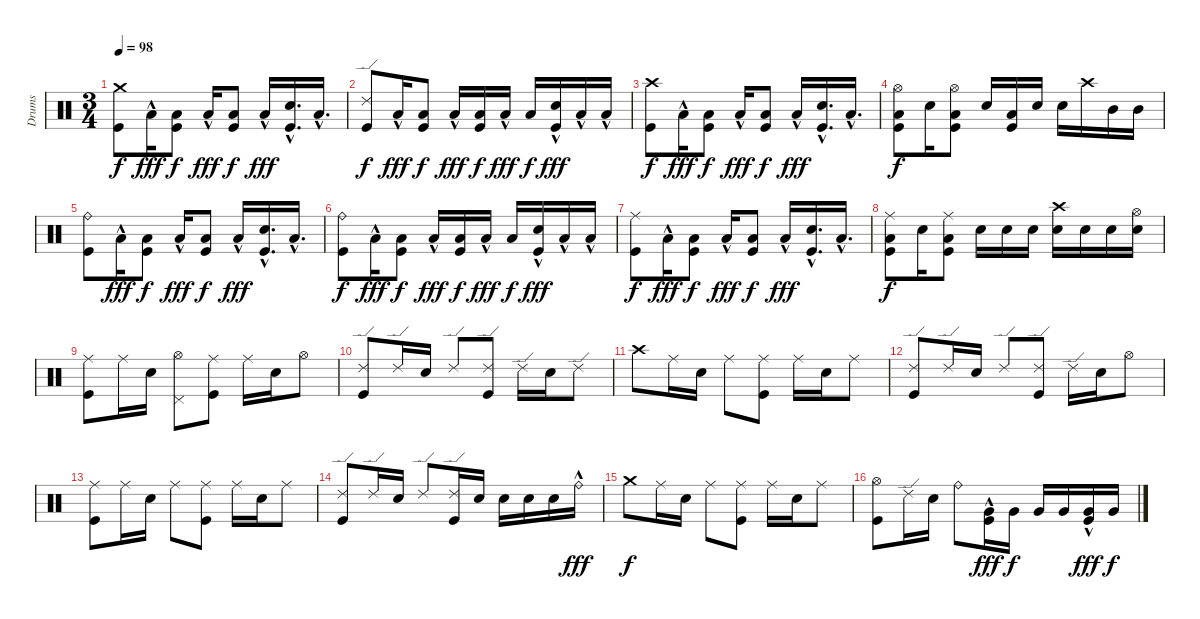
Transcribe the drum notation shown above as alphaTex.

\track ("Drums" "Drums") {instrument percussion}
\staff {score}
\articulation defaults
\ts (3 4)
\tempo 98
\clef neutral
\ks c
("Crash medium (hit)" "Kick (hit)").8{dy f} "Low Floor Tom (hit)"{hac}.16{dy fff} ("Low Floor Tom (hit)" "Kick (hit)").8{dy f} "Low Floor Tom (hit)"{hac}.16{dy fff} ("Low Floor Tom (hit)" "Kick (hit)").8{dy f} "Low Floor Tom (hit)"{hac}.16{dy fff} ("Snare (hit) 2"{hac} "Kick (hit)").16{d} "Low Floor Tom (hit)"{hac}.16{d} |
("Ride (edge) 2" "Kick (hit)").8{dy f} "Low Floor Tom (hit)"{hac}.16{dy fff} ("Low Floor Tom (hit)" "Kick (hit)").8{dy f} "Low Floor Tom (hit)"{hac}.16{dy fff} ("Low Floor Tom (hit)" "Kick (hit)").16{dy f} "Low Floor Tom (hit)"{hac}.16{dy fff} "Low Floor Tom (hit)".16{dy f} ("Snare (hit) 2"{hac} "Kick (hit)").16{dy fff} "Low Floor Tom (hit)"{hac}.16 "Low Floor Tom (hit)"{hac}.16 |
("Crash high (hit)" "Kick (hit)").8{dy f} "Low Floor Tom (hit)"{hac}.16{dy fff} ("Low Floor Tom (hit)" "Kick (hit)").8{dy f} "Low Floor Tom (hit)"{hac}.16{dy fff} ("Low Floor Tom (hit)" "Kick (hit)").8{dy f} "Low Floor Tom (hit)"{hac}.16{dy fff} ("Snare (hit) 2"{hac} "Kick (hit)").16{d} "Low Floor Tom (hit)"{hac}.16{d} |
("Low Floor Tom (hit)" "Kick (hit)" "Hi-Hat (open)").8{dy f} "Snare (hit) 2".16 ("Kick (hit)" "Low Floor Tom (hit)" "Hi-Hat (open)").8 "Snare (hit) 2".16 ("Low Floor Tom (hit)" "Kick (hit)").16 "Snare (hit) 2".16 "Snare (hit) 2".16 "Crash high (hit)".16 "Mid Tom (hit)".16 "Mid Tom (hit)".16 |
("Ride (bell)" "Kick (hit)").8 "Low Floor Tom (hit)"{hac}.16{dy fff} ("Low Floor Tom (hit)" "Kick (hit)").8{dy f} "Low Floor Tom (hit)"{hac}.16{dy fff} ("Low Floor Tom (hit)" "Kick (hit)").8{dy f} "Low Floor Tom (hit)"{hac}.16{dy fff} ("Snare (hit) 2"{hac} "Kick (hit)").16{d} "Low Floor Tom (hit)"{hac}.16{d} |
("Ride (bell)" "Kick (hit)").8{dy f} "Low Floor Tom (hit)"{hac}.16{dy fff} ("Low Floor Tom (hit)" "Kick (hit)").8{dy f} "Low Floor Tom (hit)"{hac}.16{dy fff} ("Low Floor Tom (hit)" "Kick (hit)").16{dy f} "Low Floor Tom (hit)"{hac}.16{dy fff} "Low Floor Tom (hit)".16{dy f} ("Snare (hit) 2"{hac} "Kick (hit)").16{dy fff} "Low Floor Tom (hit)"{hac}.16 "Low Floor Tom (hit)"{hac}.16 |
("Ride (middle)" "Kick (hit)").8{dy f} "Low Floor Tom (hit)"{hac}.16{dy fff} ("Low Floor Tom (hit)" "Kick (hit)").8{dy f} "Low Floor Tom (hit)"{hac}.16{dy fff} ("Low Floor Tom (hit)" "Kick (hit)").8{dy f} "Low Floor Tom (hit)"{hac}.16{dy fff} ("Snare (hit) 2"{hac} "Kick (hit)").16{d} "Low Floor Tom (hit)"{hac}.16{d} |
("Low Floor Tom (hit)" "Kick (hit)" "Ride (middle)").8{dy f} "Snare (hit) 2".16 ("Kick (hit)" "Low Floor Tom (hit)" "Ride (middle)").8 "Snare (hit) 2".16 "Snare (hit) 2".16 "Snare (hit) 2".16 ("Snare (hit) 2" "Crash high (hit)").16 "Snare (hit) 2".16 "Snare (hit) 2".16 ("Snare (hit) 2" "Hi-Hat (open)").16 |
("Ride (middle)" "Kick (hit)").8 "Ride (middle)".16 "Snare (hit) 2".16 ("Hi-Hat (open)" "Pedal Hi-Hat (hit)").8 ("Ride (middle)" "Kick (hit)").8 "Ride (middle)".16 "Snare (hit) 2".16 "Hi-Hat (open)".8 |
("Ride (edge) 2" "Kick (hit)").8 "Ride (edge) 2".16 "Snare (hit) 2".16 "Ride (edge) 2".8 ("Ride (edge) 2" "Kick (hit)").8 "Ride (edge) 2".16 "Snare (hit) 2".16 "Ride (edge) 2".8 |
"Crash high (hit)".8 "Ride (middle)".16 "Snare (hit) 2".16 "Ride (middle)".8 ("Ride (middle)" "Kick (hit)").8 "Ride (middle)".16 "Snare (hit) 2".16 "Ride (middle)".8 |
("Ride (edge) 2" "Kick (hit)").8 "Ride (edge) 2".16 "Snare (hit) 2".16 "Ride (edge) 2".8 ("Ride (edge) 2" "Kick (hit)").8 "Ride (edge) 2".16 "Snare (hit) 2".16 "Hi-Hat (open)".8 |
("Ride (middle)" "Kick (hit)").8 "Ride (middle)".16 "Snare (hit) 2".16 "Ride (middle)".8 ("Ride (middle)" "Kick (hit)").8 "Ride (middle)".16 "Snare (hit) 2".16 "Ride (middle)".8 |
("Ride (edge) 2" "Kick (hit)").8 "Ride (edge) 2".16 "Snare (hit) 2".16 "Ride (edge) 2".8 ("Ride (edge) 2" "Kick (hit)").16 "Snare (hit) 2".16 "Snare (hit) 2".16 "Snare (hit) 2".16 "Snare (hit) 2".16 "Ride (bell)"{hac}.16{dy fff} |
"Crash medium (hit)".8{dy f} "Ride (middle)".16 "Snare (hit) 2".16 "Ride (middle)".8 ("Ride (middle)" "Kick (hit)").8 "Ride (middle)".16 "Snare (hit) 2".16 "Ride (middle)".8 |
("Hi-Hat (open)" "Kick (hit)").8 "Ride (edge) 2".16 "Snare (hit) 2".16 "Ride (bell)".8 ("Very Low Tom (hit)"{hac} "Kick (hit)").16{dy fff} "Very Low Tom (hit)".16{dy f} "Very Low Tom (hit)".16 "Very Low Tom (hit)".16 ("Very Low Tom (hit)"{hac} "Kick (hit)").16{dy fff} "Very Low Tom (hit)".16{dy f}
